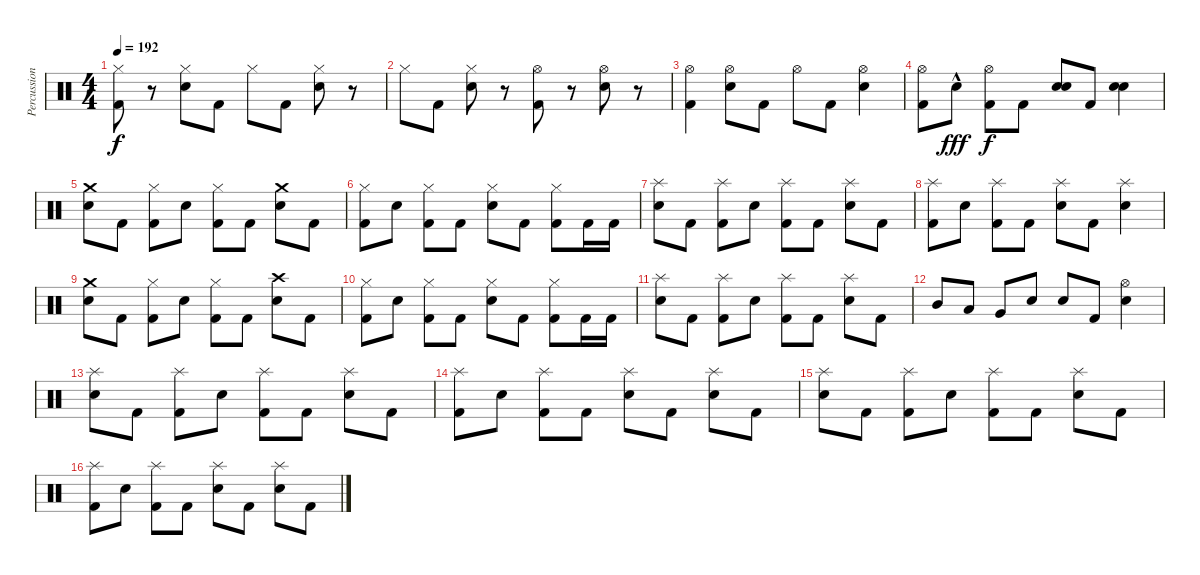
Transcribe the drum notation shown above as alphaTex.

\track ("Percussion" "Percussion") {instrument percussion}
\staff {score}
\articulation defaults
\ts (4 4)
\tempo 192
\clef neutral
\ks c
("Hi-Hat (closed)" "Kick (hit) 2").8{dy f} r.8 ("Hi-Hat (closed)" "Electric Snare (hit)").8 "Kick (hit) 2".8 "Hi-Hat (closed)".8 "Kick (hit) 2".8 ("Hi-Hat (closed)" "Electric Snare (hit)").8 r.8 |
"Hi-Hat (closed)".8 "Kick (hit) 2".8 ("Hi-Hat (closed)" "Electric Snare (hit)").8 r.8 ("Hi-Hat (open)" "Kick (hit) 2").8 r.8 ("Hi-Hat (open)" "Electric Snare (hit)").8 r.8 |
("Hi-Hat (open)" "Kick (hit) 2").4{volume 13} ("Hi-Hat (open)" "Electric Snare (hit)").8 "Kick (hit) 2".8 "Hi-Hat (open)".8 "Kick (hit) 2".8 ("Hi-Hat (open)" "Electric Snare (hit)").4 |
("Hi-Hat (open)" "Kick (hit) 2").8{volume 13} "Electric Snare (hit)"{hac}.8{dy fff} ("Hi-Hat (open)" "Kick (hit) 2").8{dy f} "Kick (hit) 2".8 ("Electric Snare (hit)" "Electric Snare (hit)").8 "Kick (hit) 2".8 ("Electric Snare (hit)" "Electric Snare (hit)").4 |
("Crash medium (hit)" "Electric Snare (hit)").8{volume 14} "Kick (hit) 2".8 ("Hi-Hat (closed)" "Kick (hit) 2").8 "Electric Snare (hit)".8 ("Hi-Hat (closed)" "Kick (hit) 2").8 "Kick (hit) 2".8 ("Crash medium (hit)" "Electric Snare (hit)").8 "Kick (hit) 2".8 |
("Hi-Hat (closed)" "Kick (hit) 2").8 "Electric Snare (hit)".8 ("Hi-Hat (closed)" "Kick (hit) 2").8 "Kick (hit) 2".8 ("Hi-Hat (closed)" "Electric Snare (hit)").8 "Kick (hit) 2".8 ("Hi-Hat (closed)" "Kick (hit) 2").8 "Kick (hit) 2".16 "Kick (hit) 2".16 |
("Splash (hit)" "Electric Snare (hit)").8 "Kick (hit) 2".8 ("Splash (hit)" "Kick (hit) 2").8 "Electric Snare (hit)".8 ("Splash (hit)" "Kick (hit) 2").8 "Kick (hit) 2".8 ("Splash (hit)" "Electric Snare (hit)").8 "Kick (hit) 2".8 |
("Splash (hit)" "Kick (hit) 2").8 "Electric Snare (hit)".8 ("Splash (hit)" "Kick (hit) 2").8 "Kick (hit) 2".8 ("Splash (hit)" "Electric Snare (hit)").8 "Kick (hit) 2".8 ("Splash (hit)" "Electric Snare (hit)").4 |
("Crash medium (hit)" "Electric Snare (hit)").8 "Kick (hit) 2".8 ("Hi-Hat (closed)" "Kick (hit) 2").8 "Electric Snare (hit)".8 ("Hi-Hat (closed)" "Kick (hit) 2").8 "Kick (hit) 2".8 ("Crash high (hit)" "Electric Snare (hit)").8 "Kick (hit) 2".8 |
("Hi-Hat (closed)" "Kick (hit) 2").8 "Electric Snare (hit)".8 ("Hi-Hat (closed)" "Kick (hit) 2").8 "Kick (hit) 2".8 ("Hi-Hat (closed)" "Electric Snare (hit)").8 "Kick (hit) 2".8 ("Hi-Hat (closed)" "Kick (hit) 2").8 "Kick (hit) 2".16 "Kick (hit) 2".16 |
("Splash (hit)" "Electric Snare (hit)").8 "Kick (hit) 2".8 ("Splash (hit)" "Kick (hit) 2").8 "Electric Snare (hit)".8 ("Splash (hit)" "Kick (hit) 2").8 "Kick (hit) 2".8 ("Splash (hit)" "Electric Snare (hit)").8 "Kick (hit) 2".8 |
"Mid Tom (hit)".8 "Low Tom (hit)".8 "Very Low Tom (hit)".8 "Electric Snare (hit)".8 "Electric Snare (hit)".8 "Kick (hit) 2".8 ("Hi-Hat (open)" "Electric Snare (hit)").4 |
("Splash (hit)" "Electric Snare (hit)").8 "Kick (hit) 2".8 ("Splash (hit)" "Kick (hit) 2").8 "Electric Snare (hit)".8 ("Splash (hit)" "Kick (hit) 2").8 "Kick (hit) 2".8 ("Splash (hit)" "Electric Snare (hit)").8 "Kick (hit) 2".8 |
("Splash (hit)" "Kick (hit) 2").8 "Electric Snare (hit)".8 ("Splash (hit)" "Kick (hit) 2").8 "Kick (hit) 2".8 ("Splash (hit)" "Electric Snare (hit)").8 "Kick (hit) 2".8 ("Splash (hit)" "Electric Snare (hit)").8 "Kick (hit) 2".8 |
("Splash (hit)" "Electric Snare (hit)").8 "Kick (hit) 2".8 ("Splash (hit)" "Kick (hit) 2").8 "Electric Snare (hit)".8 ("Splash (hit)" "Kick (hit) 2").8 "Kick (hit) 2".8 ("Splash (hit)" "Electric Snare (hit)").8 "Kick (hit) 2".8 |
("Splash (hit)" "Kick (hit) 2").8 "Electric Snare (hit)".8 ("Splash (hit)" "Kick (hit) 2").8 "Kick (hit) 2".8 ("Splash (hit)" "Electric Snare (hit)").8 "Kick (hit) 2".8 ("Splash (hit)" "Electric Snare (hit)").8 "Kick (hit) 2".8
